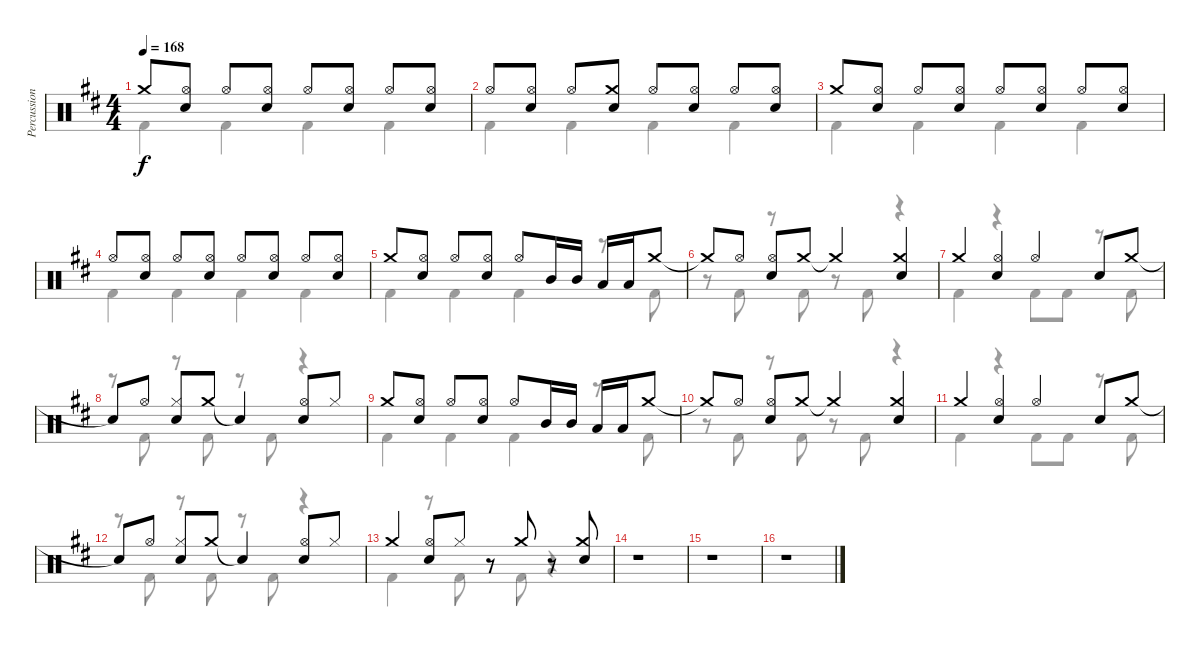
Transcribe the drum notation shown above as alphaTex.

\track ("Percussion" "Percussion") {instrument percussion}
\staff {score}
\articulation defaults
\voice
\ts (4 4)
\tempo 168
\clef neutral
\ks d "Crash medium (hit)".8{dy f}
("Hi-Hat (open)" "Snare (hit) 2").8 "Hi-Hat (open)".8 ("Hi-Hat (open)" "Snare (hit) 2").8 "Hi-Hat (open)".8 ("Hi-Hat (open)" "Snare (hit) 2").8 "Hi-Hat (open)".8 ("Hi-Hat (open)" "Snare (hit) 2").8 |
"Hi-Hat (open)".8 ("Hi-Hat (open)" "Snare (hit) 2").8 "Hi-Hat (open)".8 ("Crash medium (hit)" "Snare (hit) 2").8 "Hi-Hat (open)".8 ("Hi-Hat (open)" "Snare (hit) 2").8 "Hi-Hat (open)".8 ("Hi-Hat (open)" "Snare (hit) 2").8 |
"Crash medium (hit)".8 ("Hi-Hat (open)" "Snare (hit) 2").8 "Hi-Hat (open)".8 ("Hi-Hat (open)" "Snare (hit) 2").8 "Hi-Hat (open)".8 ("Hi-Hat (open)" "Snare (hit) 2").8 "Hi-Hat (open)".8 ("Hi-Hat (open)" "Snare (hit) 2").8 |
"Hi-Hat (open)".8 ("Hi-Hat (open)" "Snare (hit) 2").8 "Hi-Hat (open)".8 ("Hi-Hat (open)" "Snare (hit) 2").8 "Hi-Hat (open)".8 ("Hi-Hat (open)" "Snare (hit) 2").8 "Hi-Hat (open)".8 ("Hi-Hat (open)" "Snare (hit) 2").8 |
"Crash medium (hit)".8 ("Hi-Hat (open)" "Snare (hit) 2").8 "Hi-Hat (open)".8 ("Hi-Hat (open)" "Snare (hit) 2").8 "Hi-Hat (open)".8 "Mid Tom (hit)".16 "Mid Tom (hit)".16 "Low Tom (hit)".16 "Low Tom (hit)".16 "Crash medium (hit)".8 |
"Crash medium (hit)"{t}.8 "Hi-Hat (open)".8 ("Hi-Hat (open)" "Snare (hit) 2").8 "Crash medium (hit)".8 "Crash medium (hit)"{t}.4 ("Crash medium (hit)" "Snare (hit) 2").4 |
"Crash medium (hit)".4 ("Hi-Hat (open)" "Snare (hit) 2").4 "Hi-Hat (open)".4 "Snare (hit) 2".8 "Crash medium (hit)".8 |
"Snare (hit)"{t}.8 "Hi-Hat (open)".8 ("Hi-Hat (closed)" "Snare (hit) 2").8 "Crash medium (hit)".8 "Snare (hit)"{t}.4 ("Hi-Hat (open)" "Snare (hit) 2").8 "Hi-Hat (closed)".8 |
"Crash medium (hit)".8 ("Hi-Hat (open)" "Snare (hit) 2").8 "Hi-Hat (open)".8 ("Hi-Hat (open)" "Snare (hit) 2").8 "Hi-Hat (open)".8 "Mid Tom (hit)".16 "Mid Tom (hit)".16 "Low Tom (hit)".16 "Low Tom (hit)".16 "Crash medium (hit)".8 |
"Crash medium (hit)"{t}.8 "Hi-Hat (open)".8 ("Hi-Hat (open)" "Snare (hit) 2").8 "Crash medium (hit)".8 "Crash medium (hit)"{t}.4 ("Crash medium (hit)" "Snare (hit) 2").4 |
"Crash medium (hit)".4 ("Hi-Hat (open)" "Snare (hit) 2").4 "Hi-Hat (open)".4 "Snare (hit) 2".8 "Crash medium (hit)".8 |
"Snare (hit)"{t}.8 "Hi-Hat (open)".8 ("Hi-Hat (closed)" "Snare (hit) 2").8 "Crash medium (hit)".8 "Snare (hit)"{t}.4 ("Hi-Hat (open)" "Snare (hit) 2").8 "Hi-Hat (closed)".8 |
"Crash medium (hit)".4 ("Hi-Hat (open)" "Snare (hit) 2").8 "Hi-Hat (closed)".8 r.8 "Crash medium (hit)".8 r.8 ("Crash medium (hit)" "Snare (hit) 2").8 |
r.1 |
r.1 |
r.1
\voice
\clef neutral
\ottava regular
\simile none
\ks d "Kick (hit) 2".4{dy f} "Kick (hit) 2".4 "Kick (hit) 2".4 "Kick (hit) 2".4
|
"Kick (hit) 2".4 "Kick (hit) 2".4 "Kick (hit) 2".4 "Kick (hit) 2".4 |
"Kick (hit) 2".4 "Kick (hit) 2".4 "Kick (hit) 2".4 "Kick (hit) 2".4 |
"Kick (hit) 2".4 "Kick (hit) 2".4 "Kick (hit) 2".4 "Kick (hit) 2".4 |
"Kick (hit) 2".4 "Kick (hit) 2".4 "Kick (hit) 2".4 r.8 "Kick (hit) 2".8 |
r.8 "Kick (hit) 2".8 r.8 "Kick (hit) 2".8 r.8 "Kick (hit) 2".8 r.4 |
"Kick (hit) 2".4 r.4 "Kick (hit) 2".8 "Kick (hit) 2".8 r.8 "Kick (hit) 2".8 |
r.8 "Kick (hit) 2".8 r.8 "Kick (hit) 2".8 r.8 "Kick (hit) 2".8 r.4 |
"Kick (hit) 2".4 "Kick (hit) 2".4 "Kick (hit) 2".4 r.8 "Kick (hit) 2".8 |
r.8 "Kick (hit) 2".8 r.8 "Kick (hit) 2".8 r.8 "Kick (hit) 2".8 r.4 |
"Kick (hit) 2".4 r.4 "Kick (hit) 2".8 "Kick (hit) 2".8 r.8 "Kick (hit) 2".8 |
r.8 "Kick (hit) 2".8 r.8 "Kick (hit) 2".8 r.8 "Kick (hit) 2".8 r.4 |
"Kick (hit) 2".4 r.8 "Kick (hit) 2".8 r.8 "Kick (hit) 2".8 r.4 |
|
|
